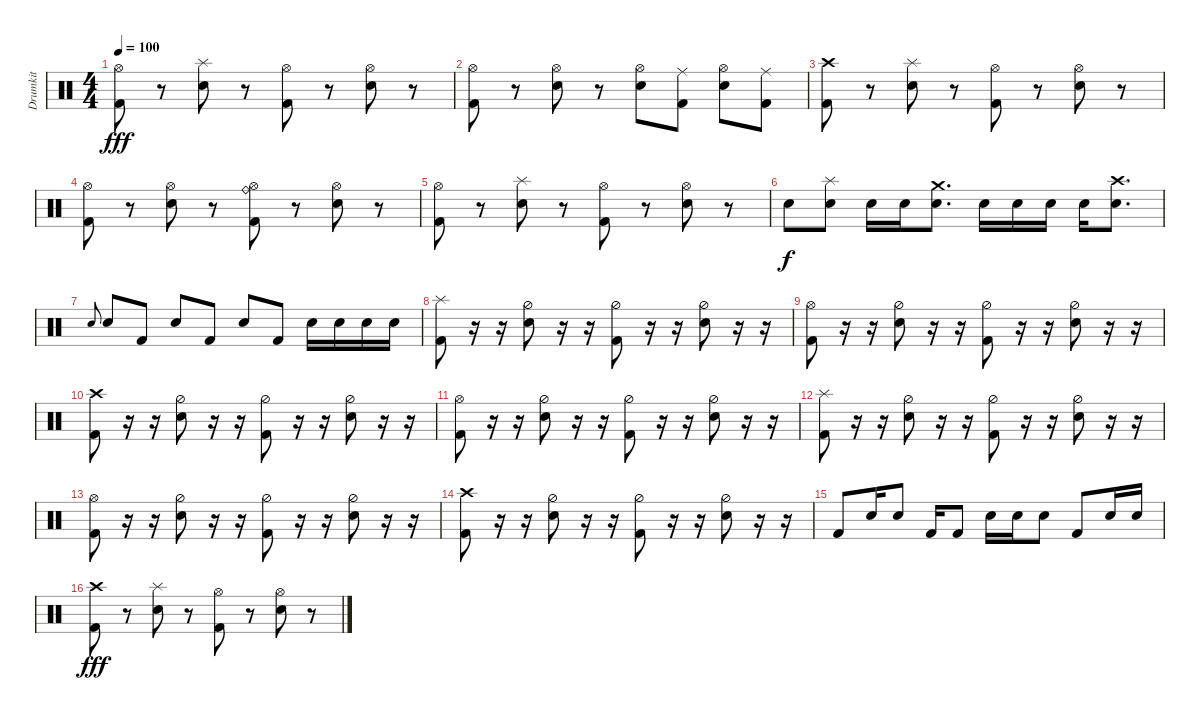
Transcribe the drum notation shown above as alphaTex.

\track ("Drumkit" "Drumkit") {instrument percussion}
\staff {score}
\articulation defaults
\ts (4 4)
\tempo 100
\clef neutral
\ks c
("Kick (hit) 2" "Hi-Hat (open)").8{dy fff} r.8 ("Snare (hit) 2" "Splash (hit)").8 r.8 ("Kick (hit) 2" "Hi-Hat (open)").8 r.8 ("Snare (hit) 2" "Hi-Hat (open)").8 r.8 |
("Kick (hit) 2" "Hi-Hat (open)").8 r.8 ("Snare (hit) 2" "Hi-Hat (open)").8 r.8 ("Snare (hit) 2" "Hi-Hat (open)").8 ("Kick (hit) 2" "Ride (middle)").8 ("Snare (hit) 2" "Hi-Hat (open)").8 ("Kick (hit) 2" "Ride (middle)").8 |
("Kick (hit) 2" "Crash high (hit)").8 r.8 ("Snare (hit) 2" "Splash (hit)").8 r.8 ("Kick (hit) 2" "Hi-Hat (open)").8 r.8 ("Snare (hit) 2" "Hi-Hat (open)").8 r.8 |
("Kick (hit) 2" "Hi-Hat (open)").8 r.8 ("Snare (hit) 2" "Hi-Hat (open)").8 r.8 ("Kick (hit) 2" "Hi-Hat (open)" "Ride (bell)").8 r.8 ("Hi-Hat (open)" "Snare (hit) 2").8 r.8 |
("Kick (hit) 2" "Hi-Hat (open)").8 r.8 ("Snare (hit) 2" "Splash (hit)").8 r.8 ("Kick (hit) 2" "Hi-Hat (open)").8 r.8 ("Snare (hit) 2" "Hi-Hat (open)").8 r.8 |
"Snare (hit) 2".8{dy f} ("Snare (hit) 2" "Splash (hit)").8 "Snare (hit) 2".16 "Snare (hit) 2".16 ("Snare (hit) 2" "Crash medium (hit)").8{d} "Snare (hit) 2".16 "Snare (hit) 2".16 "Snare (hit) 2".16 "Snare (hit) 2".16 ("Snare (hit) 2" "Crash high (hit)").8{d} |
"Snare (hit)".8{gr onbeat} "Snare (hit) 2".8 "Kick (hit) 2".8 "Snare (hit) 2".8 "Kick (hit) 2".8 "Snare (hit) 2".8 "Kick (hit) 2".8 "Snare (hit) 2".16 "Snare (hit) 2".16 "Snare (hit) 2".16 "Snare (hit) 2".16 |
("Kick (hit) 2" "Splash (hit)").8 r.16 r.16 ("Hi-Hat (half)" "Snare (hit) 2").8 r.16 r.16 ("Kick (hit) 2" "Hi-Hat (half)").8 r.16 r.16 ("Snare (hit) 2" "Hi-Hat (half)").8 r.16 r.16 |
("Kick (hit) 2" "Hi-Hat (open)").8 r.16 r.16 ("Hi-Hat (half)" "Snare (hit) 2").8 r.16 r.16 ("Kick (hit) 2" "Hi-Hat (half)").8 r.16 r.16 ("Snare (hit) 2" "Hi-Hat (half)").8 r.16 r.16 |
("Kick (hit) 2" "Crash high (hit)").8 r.16 r.16 ("Hi-Hat (half)" "Snare (hit) 2").8 r.16 r.16 ("Kick (hit) 2" "Hi-Hat (half)").8 r.16 r.16 ("Snare (hit) 2" "Hi-Hat (half)").8 r.16 r.16 |
("Kick (hit) 2" "Hi-Hat (open)").8 r.16 r.16 ("Hi-Hat (half)" "Snare (hit) 2").8 r.16 r.16 ("Kick (hit) 2" "Hi-Hat (half)").8 r.16 r.16 ("Snare (hit) 2" "Hi-Hat (half)").8 r.16 r.16 |
("Kick (hit) 2" "Splash (hit)").8 r.16 r.16 ("Hi-Hat (half)" "Snare (hit) 2").8 r.16 r.16 ("Kick (hit) 2" "Hi-Hat (half)").8 r.16 r.16 ("Snare (hit) 2" "Hi-Hat (half)").8 r.16 r.16 |
("Kick (hit) 2" "Hi-Hat (open)").8 r.16 r.16 ("Hi-Hat (half)" "Snare (hit) 2").8 r.16 r.16 ("Kick (hit) 2" "Hi-Hat (half)").8 r.16 r.16 ("Snare (hit) 2" "Hi-Hat (half)").8 r.16 r.16 |
("Kick (hit) 2" "Crash high (hit)").8 r.16 r.16 ("Hi-Hat (half)" "Snare (hit) 2").8 r.16 r.16 ("Kick (hit) 2" "Hi-Hat (half)").8 r.16 r.16 ("Snare (hit) 2" "Hi-Hat (half)").8 r.16 r.16 |
"Kick (hit) 2".8 "Snare (hit) 2".16 "Snare (hit) 2".8 "Kick (hit) 2".16 "Kick (hit) 2".8 "Snare (hit) 2".16 "Snare (hit) 2".16 "Snare (hit) 2".8 "Kick (hit) 2".8 "Snare (hit) 2".16 "Snare (hit) 2".16 |
("Kick (hit) 2" "Crash high (hit)").8{dy fff} r.8 ("Snare (hit) 2" "Splash (hit)").8 r.8 ("Kick (hit) 2" "Hi-Hat (open)").8 r.8 ("Snare (hit) 2" "Hi-Hat (open)").8 r.8
